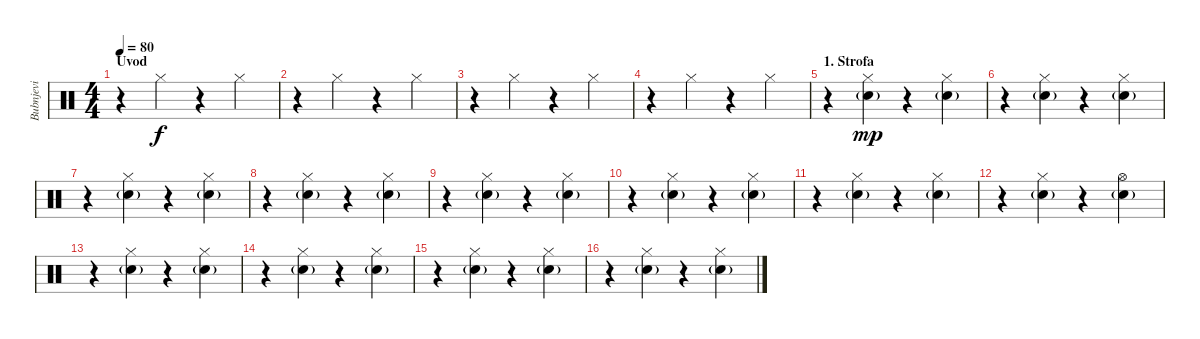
\track ("Bubnjevi" "Bubnjevi") {instrument percussion}
\staff {score}
\articulation defaults
\ts (4 4)
\section ("" "Uvod")
\tempo 80
\clef neutral
\ks c
r.4{dy f} "Hi-Hat (closed)".4 r.4 "Hi-Hat (closed)".4 |
r.4 "Hi-Hat (closed)".4 r.4 "Hi-Hat (closed)".4 |
r.4 "Hi-Hat (closed)".4 r.4 "Hi-Hat (closed)".4 |
r.4 "Hi-Hat (closed)".4 r.4 "Hi-Hat (closed)".4 |
\section ("" "1. Strofa")
r.4 ("Hi-Hat (closed)" "Electric Snare (hit)"{g}).4{dy mp} r.4 ("Hi-Hat (closed)" "Electric Snare (hit)"{g}).4 |
r.4 ("Hi-Hat (closed)" "Electric Snare (hit)"{g}).4 r.4 ("Hi-Hat (closed)" "Electric Snare (hit)"{g}).4 |
r.4 ("Hi-Hat (closed)" "Electric Snare (hit)"{g}).4 r.4 ("Hi-Hat (closed)" "Electric Snare (hit)"{g}).4 |
r.4 ("Hi-Hat (closed)" "Electric Snare (hit)"{g}).4 r.4 ("Hi-Hat (closed)" "Electric Snare (hit)"{g}).4 |
r.4 ("Hi-Hat (closed)" "Electric Snare (hit)"{g}).4 r.4 ("Hi-Hat (closed)" "Electric Snare (hit)"{g}).4 |
r.4 ("Hi-Hat (closed)" "Electric Snare (hit)"{g}).4 r.4 ("Hi-Hat (closed)" "Electric Snare (hit)"{g}).4 |
r.4 ("Hi-Hat (closed)" "Electric Snare (hit)"{g}).4 r.4 ("Hi-Hat (closed)" "Electric Snare (hit)"{g}).4 |
r.4 ("Hi-Hat (closed)" "Electric Snare (hit)"{g}).4 r.4 ("Hi-Hat (open)"{pm} "Electric Snare (hit)"{g pm}).4 |
r.4 ("Hi-Hat (closed)" "Electric Snare (hit)"{g}).4 r.4 ("Hi-Hat (closed)" "Electric Snare (hit)"{g}).4 |
r.4 ("Hi-Hat (closed)" "Electric Snare (hit)"{g}).4 r.4 ("Hi-Hat (closed)" "Electric Snare (hit)"{g}).4 |
r.4 ("Hi-Hat (closed)" "Electric Snare (hit)"{g}).4 r.4 ("Hi-Hat (closed)" "Electric Snare (hit)"{g}).4 |
r.4 ("Hi-Hat (closed)" "Electric Snare (hit)"{g}).4 r.4 ("Hi-Hat (closed)" "Electric Snare (hit)"{g}).4
